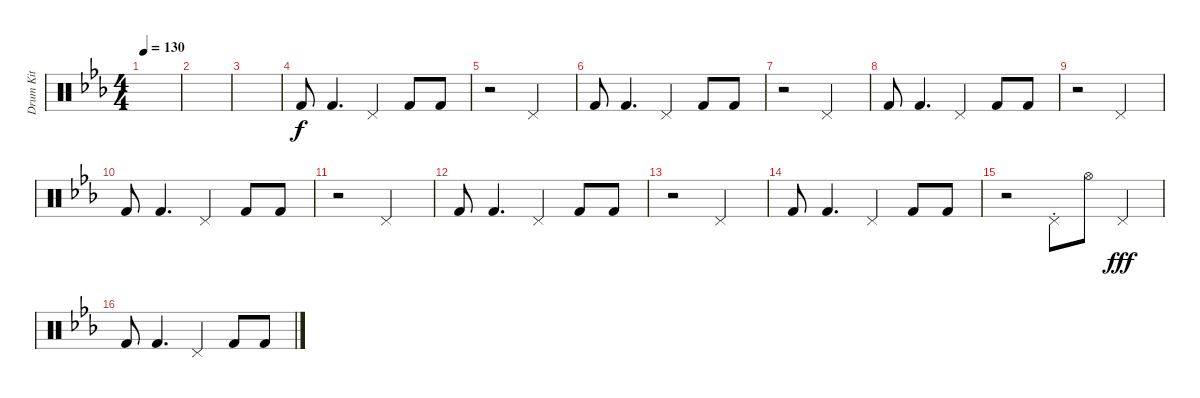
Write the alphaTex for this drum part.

\track ("Drum Kit" "Drum Kit") {instrument percussion}
\staff {score}
\articulation defaults
\ts (4 4)
\tempo 130
\clef neutral
\ks cminor
|
|
|
"Kick (hit) 2".8 "Kick (hit) 2".4{d} "Pedal Hi-Hat (hit)".4 "Kick (hit) 2".8 "Kick (hit) 2".8 |
r.2 "Pedal Hi-Hat (hit)".2 |
"Kick (hit) 2".8 "Kick (hit) 2".4{d} "Pedal Hi-Hat (hit)".4 "Kick (hit) 2".8 "Kick (hit) 2".8 |
r.2 "Pedal Hi-Hat (hit)".2 |
"Kick (hit) 2".8 "Kick (hit) 2".4{d} "Pedal Hi-Hat (hit)".4 "Kick (hit) 2".8 "Kick (hit) 2".8 |
r.2 "Pedal Hi-Hat (hit)".2 |
"Kick (hit) 2".8 "Kick (hit) 2".4{d} "Pedal Hi-Hat (hit)".4 "Kick (hit) 2".8 "Kick (hit) 2".8 |
r.2 "Pedal Hi-Hat (hit)".2 |
"Kick (hit) 2".8 "Kick (hit) 2".4{d} "Pedal Hi-Hat (hit)".4 "Kick (hit) 2".8 "Kick (hit) 2".8 |
r.2 "Pedal Hi-Hat (hit)".2 |
"Kick (hit) 2".8 "Kick (hit) 2".4{d} "Pedal Hi-Hat (hit)".4 "Kick (hit) 2".8 "Kick (hit) 2".8 |
r.2 "Pedal Hi-Hat (hit)"{st}.8 "Hi-Hat (open)".8{dy f} "Pedal Hi-Hat (hit)".4{dy fff} |
"Kick (hit) 2".8 "Kick (hit) 2".4{d} "Pedal Hi-Hat (hit)".4 "Kick (hit) 2".8 "Kick (hit) 2".8
